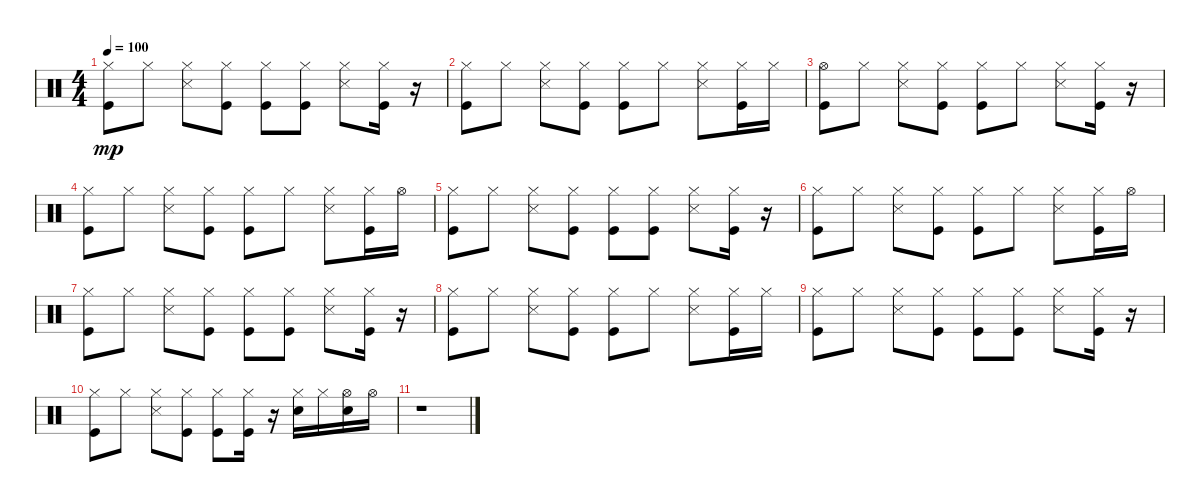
\track "" {instrument percussion}
\staff {score}
\articulation defaults
\ts (4 4)
\tempo 100
\clef neutral
\ks c
("Kick (hit)" "Hi-Hat (closed)").8{dy mp} "Hi-Hat (closed)".8 ("Snare (side stick) 3" "Hi-Hat (closed)").8 ("Kick (hit)" "Hi-Hat (closed)").8 ("Kick (hit)" "Hi-Hat (closed)").8 ("Kick (hit)" "Hi-Hat (closed)").8 ("Snare (side stick) 3" "Hi-Hat (closed)").8 ("Kick (hit)" "Hi-Hat (closed)").16 r.16 |
("Kick (hit)" "Hi-Hat (closed)").8 "Hi-Hat (closed)".8 ("Snare (side stick) 3" "Hi-Hat (closed)").8 ("Kick (hit)" "Hi-Hat (closed)").8 ("Kick (hit)" "Hi-Hat (closed)").8 "Hi-Hat (closed)".8 ("Snare (side stick) 3" "Hi-Hat (closed)").8 ("Kick (hit)" "Hi-Hat (closed)").16 "Hi-Hat (closed)".16 |
("Kick (hit)" "Hi-Hat (open)").8 "Hi-Hat (closed)".8 ("Snare (side stick) 3" "Hi-Hat (closed)").8 ("Kick (hit)" "Hi-Hat (closed)").8 ("Kick (hit)" "Hi-Hat (closed)").8 "Hi-Hat (closed)".8 ("Snare (side stick) 3" "Hi-Hat (closed)").8 ("Kick (hit)" "Hi-Hat (closed)").16 r.16 |
("Kick (hit)" "Hi-Hat (closed)").8 "Hi-Hat (closed)".8 ("Snare (side stick) 3" "Hi-Hat (closed)").8 ("Kick (hit)" "Hi-Hat (closed)").8 ("Kick (hit)" "Hi-Hat (closed)").8 "Hi-Hat (closed)".8 ("Snare (side stick) 3" "Hi-Hat (closed)").8 ("Kick (hit)" "Hi-Hat (closed)").16 "Hi-Hat (open)".16 |
("Kick (hit)" "Hi-Hat (closed)").8 "Hi-Hat (closed)".8 ("Snare (side stick) 3" "Hi-Hat (closed)").8 ("Kick (hit)" "Hi-Hat (closed)").8 ("Kick (hit)" "Hi-Hat (closed)").8 ("Kick (hit)" "Hi-Hat (closed)").8 ("Snare (side stick) 3" "Hi-Hat (closed)").8 ("Kick (hit)" "Hi-Hat (closed)").16 r.16 |
("Kick (hit)" "Hi-Hat (closed)").8 "Hi-Hat (closed)".8 ("Snare (side stick) 3" "Hi-Hat (closed)").8 ("Kick (hit)" "Hi-Hat (closed)").8 ("Kick (hit)" "Hi-Hat (closed)").8 "Hi-Hat (closed)".8 ("Snare (side stick) 3" "Hi-Hat (closed)").8 ("Kick (hit)" "Hi-Hat (closed)").16 "Hi-Hat (open)".16 |
("Kick (hit)" "Hi-Hat (closed)").8 "Hi-Hat (closed)".8 ("Snare (side stick) 3" "Hi-Hat (closed)").8 ("Kick (hit)" "Hi-Hat (closed)").8 ("Kick (hit)" "Hi-Hat (closed)").8 ("Kick (hit)" "Hi-Hat (closed)").8 ("Snare (side stick) 3" "Hi-Hat (closed)").8 ("Kick (hit)" "Hi-Hat (closed)").16 r.16 |
("Kick (hit)" "Hi-Hat (closed)").8 "Hi-Hat (closed)".8 ("Snare (side stick) 3" "Hi-Hat (closed)").8 ("Kick (hit)" "Hi-Hat (closed)").8 ("Kick (hit)" "Hi-Hat (closed)").8 "Hi-Hat (closed)".8 ("Snare (side stick) 3" "Hi-Hat (closed)").8 ("Kick (hit)" "Hi-Hat (closed)").16 "Hi-Hat (closed)".16 |
("Kick (hit)" "Hi-Hat (closed)").8 "Hi-Hat (closed)".8 ("Snare (side stick) 3" "Hi-Hat (closed)").8 ("Kick (hit)" "Hi-Hat (closed)").8 ("Kick (hit)" "Hi-Hat (closed)").8 ("Kick (hit)" "Hi-Hat (closed)").8 ("Snare (side stick) 3" "Hi-Hat (closed)").8 ("Kick (hit)" "Hi-Hat (closed)").16 r.16 |
("Kick (hit)" "Hi-Hat (closed)").8 "Hi-Hat (closed)".8 ("Snare (side stick) 3" "Hi-Hat (closed)").8 ("Kick (hit)" "Hi-Hat (closed)").8 ("Kick (hit)" "Hi-Hat (closed)").8 ("Kick (hit)" "Hi-Hat (closed)").16 r.16 ("Snare (hit) 2" "Hi-Hat (closed)").16 "Hi-Hat (closed)".16 ("Snare (hit) 2" "Hi-Hat (open)").16 "Hi-Hat (open)".16 |
r.1
